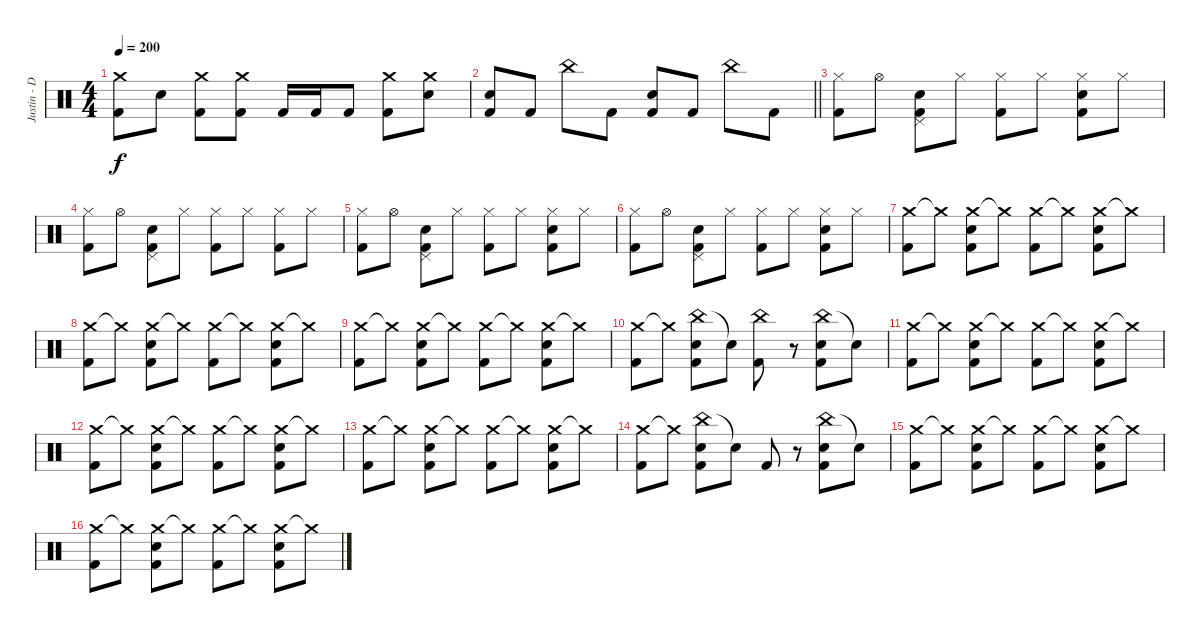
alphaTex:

\track ("Justin - Drums" "Justin - D") {instrument percussion}
\staff {score}
\articulation defaults
\ts (4 4)
\tempo 200
\clef neutral
\ks c
("Crash medium (hit)" "Kick (hit) 2").8{dy f} "Snare (hit) 2".8 ("Crash medium (hit)" "Kick (hit) 2").8 ("Crash medium (hit)" "Kick (hit) 2").8 "Kick (hit) 2".16 "Kick (hit) 2".16 "Kick (hit) 2".8 ("Crash medium (hit)" "Kick (hit) 2").8 ("Crash medium (hit)" "Snare (hit) 2").8 |
\barLineRight lightlight
("Snare (hit) 2" "Kick (hit) 2").8 "Kick (hit) 2".8 "China (hit)".8 "Kick (hit) 2".8 ("Snare (hit) 2" "Kick (hit) 2").8 "Kick (hit) 2".8 "China (hit)".8 "Kick (hit) 2".8 |
("Hi-Hat (closed)" "Kick (hit) 2").8 "Hi-Hat (open)".8 ("Pedal Hi-Hat (hit)" "Snare (hit) 2" "Kick (hit) 2").8 "Hi-Hat (closed)".8 ("Hi-Hat (closed)" "Kick (hit) 2").8 "Hi-Hat (closed)".8 ("Hi-Hat (closed)" "Snare (hit) 2" "Kick (hit) 2").8 "Hi-Hat (closed)".8 |
("Hi-Hat (closed)" "Kick (hit) 2").8 "Hi-Hat (open)".8 ("Pedal Hi-Hat (hit)" "Snare (hit) 2" "Kick (hit) 2").8 "Hi-Hat (closed)".8 ("Hi-Hat (closed)" "Kick (hit) 2").8 "Hi-Hat (closed)".8 ("Hi-Hat (closed)" "Kick (hit) 2").8 "Hi-Hat (closed)".8 |
("Hi-Hat (closed)" "Kick (hit) 2").8 "Hi-Hat (open)".8 ("Pedal Hi-Hat (hit)" "Snare (hit) 2" "Kick (hit) 2").8 "Hi-Hat (closed)".8 ("Hi-Hat (closed)" "Kick (hit) 2").8 "Hi-Hat (closed)".8 ("Hi-Hat (closed)" "Snare (hit) 2" "Kick (hit) 2").8 "Hi-Hat (closed)".8 |
("Hi-Hat (closed)" "Kick (hit) 2").8 "Hi-Hat (open)".8 ("Pedal Hi-Hat (hit)" "Snare (hit) 2" "Kick (hit) 2").8 "Hi-Hat (closed)".8 ("Hi-Hat (closed)" "Kick (hit) 2").8 "Hi-Hat (closed)".8 ("Hi-Hat (closed)" "Snare (hit) 2" "Kick (hit) 2").8 "Hi-Hat (closed)".8 |
("Crash medium (hit)" "Kick (hit) 2").8 "Crash medium (hit)"{t}.8 ("Crash medium (hit)" "Snare (hit) 2" "Kick (hit) 2").8 "Crash medium (hit)"{t}.8 ("Crash medium (hit)" "Kick (hit) 2").8 "Crash medium (hit)"{t}.8 ("Crash medium (hit)" "Snare (hit) 2" "Kick (hit) 2").8 "Crash medium (hit)"{t}.8 |
("Crash medium (hit)" "Kick (hit) 2").8 "Crash medium (hit)"{t}.8 ("Crash medium (hit)" "Snare (hit) 2" "Kick (hit) 2").8 "Crash medium (hit)"{t}.8 ("Crash medium (hit)" "Kick (hit) 2").8 "Crash medium (hit)"{t}.8 ("Crash medium (hit)" "Snare (hit) 2" "Kick (hit) 2").8 "Crash medium (hit)"{t}.8 |
("Crash medium (hit)" "Kick (hit) 2").8 "Crash medium (hit)"{t}.8 ("Crash medium (hit)" "Snare (hit) 2" "Kick (hit) 2").8 "Crash medium (hit)"{t}.8 ("Crash medium (hit)" "Kick (hit) 2").8 "Crash medium (hit)"{t}.8 ("Crash medium (hit)" "Snare (hit) 2" "Kick (hit) 2").8 "Crash medium (hit)"{t}.8 |
("Crash medium (hit)" "Kick (hit) 2").8 "Crash medium (hit)"{t}.8 ("China (hit)" "Snare (hit) 2" "Kick (hit) 2").8 "Snare (hit)"{t}.8 ("China (hit)" "Kick (hit) 2").8 r.8 ("China (hit)" "Snare (hit) 2" "Kick (hit) 2").8 "Snare (hit)"{t}.8 |
("Crash medium (hit)" "Kick (hit) 2").8 "Crash medium (hit)"{t}.8 ("Crash medium (hit)" "Snare (hit) 2" "Kick (hit) 2").8 "Crash medium (hit)"{t}.8 ("Crash medium (hit)" "Kick (hit) 2").8 "Crash medium (hit)"{t}.8 ("Crash medium (hit)" "Snare (hit) 2" "Kick (hit) 2").8 "Crash medium (hit)"{t}.8 |
("Crash medium (hit)" "Kick (hit) 2").8 "Crash medium (hit)"{t}.8 ("Crash medium (hit)" "Snare (hit) 2" "Kick (hit) 2").8 "Crash medium (hit)"{t}.8 ("Crash medium (hit)" "Kick (hit) 2").8 "Crash medium (hit)"{t}.8 ("Crash medium (hit)" "Snare (hit) 2" "Kick (hit) 2").8 "Crash medium (hit)"{t}.8 |
("Crash medium (hit)" "Kick (hit) 2").8 "Crash medium (hit)"{t}.8 ("Crash medium (hit)" "Snare (hit) 2" "Kick (hit) 2").8 "Crash medium (hit)"{t}.8 ("Crash medium (hit)" "Kick (hit) 2").8 "Crash medium (hit)"{t}.8 ("Crash medium (hit)" "Snare (hit) 2" "Kick (hit) 2").8 "Crash medium (hit)"{t}.8 |
("Crash medium (hit)" "Kick (hit) 2").8 "Crash medium (hit)"{t}.8 ("China (hit)" "Snare (hit) 2" "Kick (hit) 2").8 "Snare (hit)"{t}.8 "Kick (hit) 2".8 r.8 ("China (hit)" "Snare (hit) 2" "Kick (hit) 2").8 "Snare (hit)"{t}.8 |
("Crash medium (hit)" "Kick (hit) 2").8 "Crash medium (hit)"{t}.8 ("Crash medium (hit)" "Snare (hit) 2" "Kick (hit) 2").8 "Crash medium (hit)"{t}.8 ("Crash medium (hit)" "Kick (hit) 2").8 "Crash medium (hit)"{t}.8 ("Crash medium (hit)" "Snare (hit) 2" "Kick (hit) 2").8 "Crash medium (hit)"{t}.8 |
("Crash medium (hit)" "Kick (hit) 2").8 "Crash medium (hit)"{t}.8 ("Crash medium (hit)" "Snare (hit) 2" "Kick (hit) 2").8 "Crash medium (hit)"{t}.8 ("Crash medium (hit)" "Kick (hit) 2").8 "Crash medium (hit)"{t}.8 ("Crash medium (hit)" "Snare (hit) 2" "Kick (hit) 2").8 "Crash medium (hit)"{t}.8
